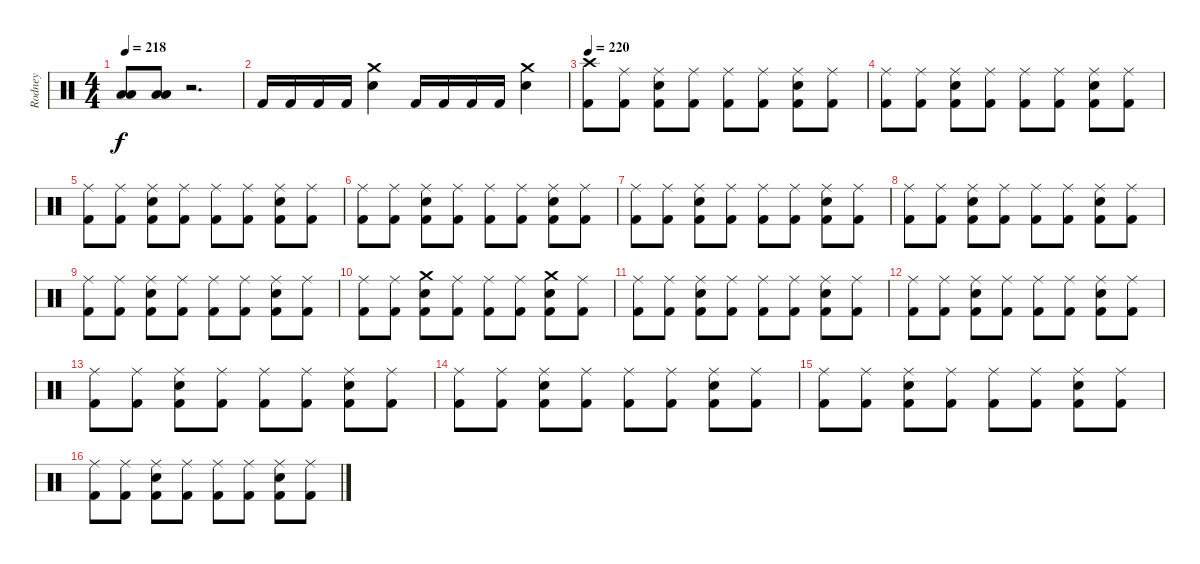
\track ("Rodney" "Rodney") {instrument percussion}
\staff {score}
\articulation defaults
\ts (4 4)
\tempo 218
\clef neutral
\ks c
("Low Tom (hit)" "Low Tom (hit)").8{dy f} ("Low Tom (hit)" "Low Tom (hit)").8 r.2{d} |
"Kick (hit) 2".16 "Kick (hit) 2".16 "Kick (hit) 2".16 "Kick (hit) 2".16 ("Crash medium (hit)" "Snare (hit) 2").4 "Kick (hit) 2".16 "Kick (hit) 2".16 "Kick (hit) 2".16 "Kick (hit) 2".16 ("Crash medium (hit)" "Snare (hit) 2").4 |
\tempo 220
("Crash high (hit)" "Kick (hit) 2").8 ("Ride (middle)" "Kick (hit) 2").8 ("Ride (middle)" "Snare (hit) 2" "Kick (hit) 2").8 ("Ride (middle)" "Kick (hit) 2").8 ("Ride (middle)" "Kick (hit) 2").8 ("Ride (middle)" "Kick (hit) 2").8 ("Ride (middle)" "Snare (hit) 2" "Kick (hit) 2").8 ("Ride (middle)" "Kick (hit) 2").8 |
("Ride (middle)" "Kick (hit) 2").8 ("Ride (middle)" "Kick (hit) 2").8 ("Ride (middle)" "Snare (hit) 2" "Kick (hit) 2").8 ("Ride (middle)" "Kick (hit) 2").8 ("Ride (middle)" "Kick (hit) 2").8 ("Ride (middle)" "Kick (hit) 2").8 ("Ride (middle)" "Snare (hit) 2" "Kick (hit) 2").8 ("Ride (middle)" "Kick (hit) 2").8 |
("Ride (middle)" "Kick (hit) 2").8 ("Ride (middle)" "Kick (hit) 2").8 ("Ride (middle)" "Snare (hit) 2" "Kick (hit) 2").8 ("Ride (middle)" "Kick (hit) 2").8 ("Ride (middle)" "Kick (hit) 2").8 ("Ride (middle)" "Kick (hit) 2").8 ("Ride (middle)" "Snare (hit) 2" "Kick (hit) 2").8 ("Ride (middle)" "Kick (hit) 2").8 |
("Ride (middle)" "Kick (hit) 2").8 ("Ride (middle)" "Kick (hit) 2").8 ("Ride (middle)" "Snare (hit) 2" "Kick (hit) 2").8 ("Ride (middle)" "Kick (hit) 2").8 ("Ride (middle)" "Kick (hit) 2").8 ("Ride (middle)" "Kick (hit) 2").8 ("Ride (middle)" "Snare (hit) 2" "Kick (hit) 2").8 ("Ride (middle)" "Kick (hit) 2").8 |
("Ride (middle)" "Kick (hit) 2").8 ("Ride (middle)" "Kick (hit) 2").8 ("Ride (middle)" "Snare (hit) 2" "Kick (hit) 2").8 ("Ride (middle)" "Kick (hit) 2").8 ("Ride (middle)" "Kick (hit) 2").8 ("Ride (middle)" "Kick (hit) 2").8 ("Ride (middle)" "Snare (hit) 2" "Kick (hit) 2").8 ("Ride (middle)" "Kick (hit) 2").8 |
("Ride (middle)" "Kick (hit) 2").8 ("Ride (middle)" "Kick (hit) 2").8 ("Ride (middle)" "Snare (hit) 2" "Kick (hit) 2").8 ("Ride (middle)" "Kick (hit) 2").8 ("Ride (middle)" "Kick (hit) 2").8 ("Ride (middle)" "Kick (hit) 2").8 ("Ride (middle)" "Snare (hit) 2" "Kick (hit) 2").8 ("Ride (middle)" "Kick (hit) 2").8 |
("Ride (middle)" "Kick (hit) 2").8 ("Ride (middle)" "Kick (hit) 2").8 ("Ride (middle)" "Snare (hit) 2" "Kick (hit) 2").8 ("Ride (middle)" "Kick (hit) 2").8 ("Ride (middle)" "Kick (hit) 2").8 ("Ride (middle)" "Kick (hit) 2").8 ("Ride (middle)" "Snare (hit) 2" "Kick (hit) 2").8 ("Ride (middle)" "Kick (hit) 2").8 |
("Ride (middle)" "Kick (hit) 2").8 ("Ride (middle)" "Kick (hit) 2").8 ("Crash medium (hit)" "Snare (hit) 2" "Kick (hit) 2").8 ("Ride (middle)" "Kick (hit) 2").8 ("Ride (middle)" "Kick (hit) 2").8 ("Ride (middle)" "Kick (hit) 2").8 ("Crash medium (hit)" "Snare (hit) 2" "Kick (hit) 2").8 ("Ride (middle)" "Kick (hit) 2").8 |
("Ride (middle)" "Kick (hit) 2").8 ("Ride (middle)" "Kick (hit) 2").8 ("Ride (middle)" "Snare (hit) 2" "Kick (hit) 2").8 ("Ride (middle)" "Kick (hit) 2").8 ("Ride (middle)" "Kick (hit) 2").8 ("Ride (middle)" "Kick (hit) 2").8 ("Ride (middle)" "Snare (hit) 2" "Kick (hit) 2").8 ("Ride (middle)" "Kick (hit) 2").8 |
("Ride (middle)" "Kick (hit) 2").8 ("Ride (middle)" "Kick (hit) 2").8 ("Ride (middle)" "Snare (hit) 2" "Kick (hit) 2").8 ("Ride (middle)" "Kick (hit) 2").8 ("Ride (middle)" "Kick (hit) 2").8 ("Ride (middle)" "Kick (hit) 2").8 ("Ride (middle)" "Snare (hit) 2" "Kick (hit) 2").8 ("Ride (middle)" "Kick (hit) 2").8 |
("Ride (middle)" "Kick (hit) 2").8 ("Ride (middle)" "Kick (hit) 2").8 ("Ride (middle)" "Snare (hit) 2" "Kick (hit) 2").8 ("Ride (middle)" "Kick (hit) 2").8 ("Ride (middle)" "Kick (hit) 2").8 ("Ride (middle)" "Kick (hit) 2").8 ("Ride (middle)" "Snare (hit) 2" "Kick (hit) 2").8 ("Ride (middle)" "Kick (hit) 2").8 |
("Ride (middle)" "Kick (hit) 2").8 ("Ride (middle)" "Kick (hit) 2").8 ("Ride (middle)" "Snare (hit) 2" "Kick (hit) 2").8 ("Ride (middle)" "Kick (hit) 2").8 ("Ride (middle)" "Kick (hit) 2").8 ("Ride (middle)" "Kick (hit) 2").8 ("Ride (middle)" "Snare (hit) 2" "Kick (hit) 2").8 ("Ride (middle)" "Kick (hit) 2").8 |
("Ride (middle)" "Kick (hit) 2").8 ("Ride (middle)" "Kick (hit) 2").8 ("Ride (middle)" "Snare (hit) 2" "Kick (hit) 2").8 ("Ride (middle)" "Kick (hit) 2").8 ("Ride (middle)" "Kick (hit) 2").8 ("Ride (middle)" "Kick (hit) 2").8 ("Ride (middle)" "Snare (hit) 2" "Kick (hit) 2").8 ("Ride (middle)" "Kick (hit) 2").8 |
("Ride (middle)" "Kick (hit) 2").8 ("Ride (middle)" "Kick (hit) 2").8 ("Ride (middle)" "Snare (hit) 2" "Kick (hit) 2").8 ("Ride (middle)" "Kick (hit) 2").8 ("Ride (middle)" "Kick (hit) 2").8 ("Ride (middle)" "Kick (hit) 2").8 ("Ride (middle)" "Snare (hit) 2" "Kick (hit) 2").8 ("Ride (middle)" "Kick (hit) 2").8
